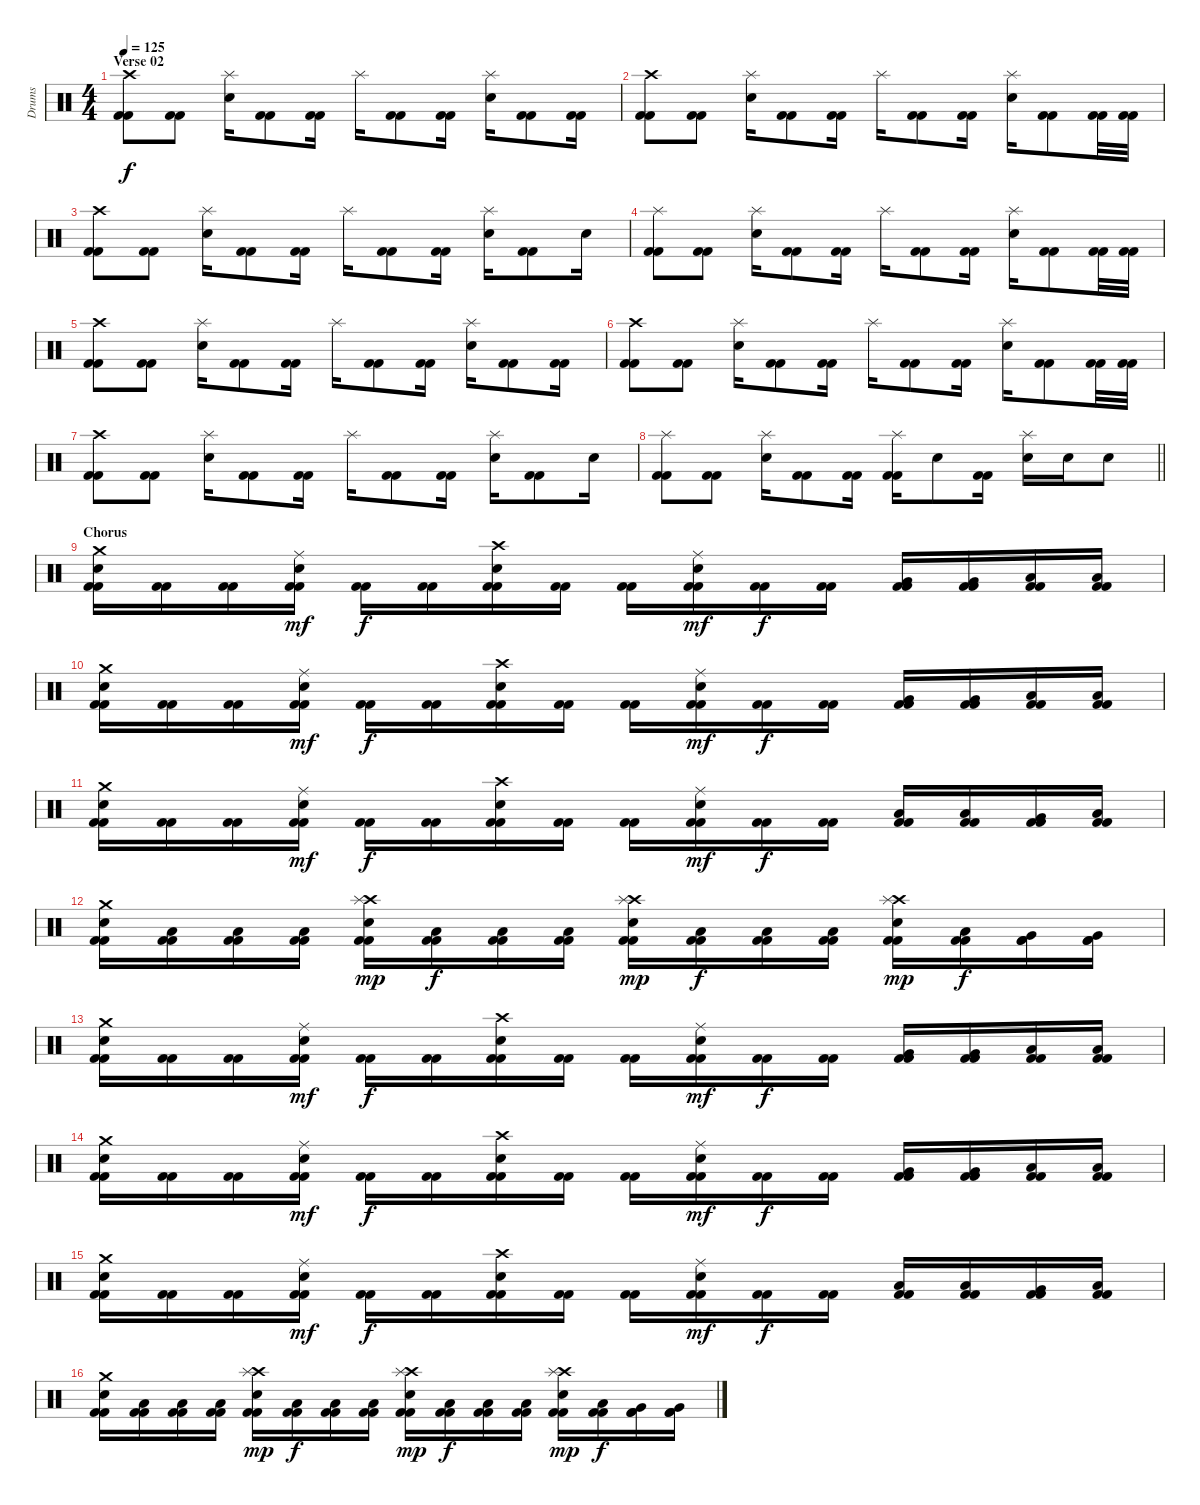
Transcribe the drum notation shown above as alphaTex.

\track ("Drums" "Drums") {instrument percussion}
\staff {score}
\articulation defaults
\ts (4 4)
\section ("" "Verse 02")
\tempo 125
\clef neutral
\ks c
("Crash high (hit)" "Kick (hit) 2" "Kick (hit) 2").8{dy f} ("Kick (hit) 2" "Kick (hit) 2").8 ("Splash (hit)" "Electric Snare (hit)").16 ("Kick (hit) 2" "Kick (hit) 2").8 ("Kick (hit) 2" "Kick (hit) 2").16 "Splash (hit)".16 ("Kick (hit) 2" "Kick (hit) 2").8 ("Kick (hit) 2" "Kick (hit) 2").16 ("Splash (hit)" "Electric Snare (hit)").16 ("Kick (hit) 2" "Kick (hit) 2").8 ("Kick (hit) 2" "Kick (hit) 2").16 |
("Crash high (hit)" "Kick (hit) 2" "Kick (hit) 2").8 ("Kick (hit) 2" "Kick (hit) 2").8 ("Splash (hit)" "Electric Snare (hit)").16 ("Kick (hit) 2" "Kick (hit) 2").8 ("Kick (hit) 2" "Kick (hit) 2").16 "Splash (hit)".16 ("Kick (hit) 2" "Kick (hit) 2").8 ("Kick (hit) 2" "Kick (hit) 2").16 ("Splash (hit)" "Electric Snare (hit)").16 ("Kick (hit) 2" "Kick (hit) 2").8 ("Kick (hit) 2" "Kick (hit) 2").32 ("Kick (hit) 2" "Kick (hit) 2").32 |
("Crash high (hit)" "Kick (hit) 2" "Kick (hit) 2").8 ("Kick (hit) 2" "Kick (hit) 2").8 ("Splash (hit)" "Electric Snare (hit)").16 ("Kick (hit) 2" "Kick (hit) 2").8 ("Kick (hit) 2" "Kick (hit) 2").16 "Splash (hit)".16 ("Kick (hit) 2" "Kick (hit) 2").8 ("Kick (hit) 2" "Kick (hit) 2").16 ("Splash (hit)" "Electric Snare (hit)").16 ("Kick (hit) 2" "Kick (hit) 2").8 "Electric Snare (hit)".16 |
("Splash (hit)" "Kick (hit) 2" "Kick (hit) 2").8 ("Kick (hit) 2" "Kick (hit) 2").8 ("Splash (hit)" "Electric Snare (hit)").16 ("Kick (hit) 2" "Kick (hit) 2").8 ("Kick (hit) 2" "Kick (hit) 2").16 "Splash (hit)".16 ("Kick (hit) 2" "Kick (hit) 2").8 ("Kick (hit) 2" "Kick (hit) 2").16 ("Splash (hit)" "Electric Snare (hit)").16 ("Kick (hit) 2" "Kick (hit) 2").8 ("Kick (hit) 2" "Kick (hit) 2").32 ("Kick (hit) 2" "Kick (hit) 2").32 |
("Crash high (hit)" "Kick (hit) 2" "Kick (hit) 2").8 ("Kick (hit) 2" "Kick (hit) 2").8 ("Splash (hit)" "Electric Snare (hit)").16 ("Kick (hit) 2" "Kick (hit) 2").8 ("Kick (hit) 2" "Kick (hit) 2").16 "Splash (hit)".16 ("Kick (hit) 2" "Kick (hit) 2").8 ("Kick (hit) 2" "Kick (hit) 2").16 ("Splash (hit)" "Electric Snare (hit)").16 ("Kick (hit) 2" "Kick (hit) 2").8 ("Kick (hit) 2" "Kick (hit) 2").16 |
("Crash high (hit)" "Kick (hit) 2" "Kick (hit) 2").8 ("Kick (hit) 2" "Kick (hit) 2").8 ("Splash (hit)" "Electric Snare (hit)").16 ("Kick (hit) 2" "Kick (hit) 2").8 ("Kick (hit) 2" "Kick (hit) 2").16 "Splash (hit)".16 ("Kick (hit) 2" "Kick (hit) 2").8 ("Kick (hit) 2" "Kick (hit) 2").16 ("Splash (hit)" "Electric Snare (hit)").16 ("Kick (hit) 2" "Kick (hit) 2").8 ("Kick (hit) 2" "Kick (hit) 2").32 ("Kick (hit) 2" "Kick (hit) 2").32 |
("Crash high (hit)" "Kick (hit) 2" "Kick (hit) 2").8 ("Kick (hit) 2" "Kick (hit) 2").8 ("Splash (hit)" "Electric Snare (hit)").16 ("Kick (hit) 2" "Kick (hit) 2").8 ("Kick (hit) 2" "Kick (hit) 2").16 "Splash (hit)".16 ("Kick (hit) 2" "Kick (hit) 2").8 ("Kick (hit) 2" "Kick (hit) 2").16 ("Splash (hit)" "Electric Snare (hit)").16 ("Kick (hit) 2" "Kick (hit) 2").8 "Electric Snare (hit)".16 |
\barLineRight lightlight
("Splash (hit)" "Kick (hit) 2" "Kick (hit) 2").8 ("Kick (hit) 2" "Kick (hit) 2").8 ("Splash (hit)" "Electric Snare (hit)").16 ("Kick (hit) 2" "Kick (hit) 2").8 ("Kick (hit) 2" "Kick (hit) 2").16 ("Splash (hit)" "Kick (hit) 2" "Kick (hit) 2").16 "Electric Snare (hit)".8 ("Kick (hit) 2" "Kick (hit) 2").16 ("Splash (hit)" "Electric Snare (hit)").16 "Electric Snare (hit)".16 "Electric Snare (hit)".8 |
\section ("" "Chorus")
("Crash medium (hit)" "Electric Snare (hit)" "Kick (hit) 2" "Kick (hit) 2").16 ("Kick (hit) 2" "Kick (hit) 2").16 ("Kick (hit) 2" "Kick (hit) 2").16 ("Ride (middle)" "Electric Snare (hit)" "Kick (hit) 2" "Kick (hit) 2").16{dy mf} ("Kick (hit) 2" "Kick (hit) 2").16{dy f} ("Kick (hit) 2" "Kick (hit) 2").16 ("Crash high (hit)" "Electric Snare (hit)" "Kick (hit) 2" "Kick (hit) 2").16 ("Kick (hit) 2" "Kick (hit) 2").16 ("Kick (hit) 2" "Kick (hit) 2").16 ("Ride (middle)" "Electric Snare (hit)" "Kick (hit) 2" "Kick (hit) 2").16{dy mf} ("Kick (hit) 2" "Kick (hit) 2").16{dy f} ("Kick (hit) 2" "Kick (hit) 2").16 ("Very Low Tom (hit)" "Kick (hit) 2" "Kick (hit) 2").16 ("Very Low Tom (hit)" "Kick (hit) 2" "Kick (hit) 2").16 ("Low Floor Tom (hit)" "Kick (hit) 2" "Kick (hit) 2").16 ("Low Floor Tom (hit)" "Kick (hit) 2" "Kick (hit) 2").16 |
("Crash medium (hit)" "Electric Snare (hit)" "Kick (hit) 2" "Kick (hit) 2").16 ("Kick (hit) 2" "Kick (hit) 2").16 ("Kick (hit) 2" "Kick (hit) 2").16 ("Ride (middle)" "Electric Snare (hit)" "Kick (hit) 2" "Kick (hit) 2").16{dy mf} ("Kick (hit) 2" "Kick (hit) 2").16{dy f} ("Kick (hit) 2" "Kick (hit) 2").16 ("Crash high (hit)" "Electric Snare (hit)" "Kick (hit) 2" "Kick (hit) 2").16 ("Kick (hit) 2" "Kick (hit) 2").16 ("Kick (hit) 2" "Kick (hit) 2").16 ("Ride (middle)" "Electric Snare (hit)" "Kick (hit) 2" "Kick (hit) 2").16{dy mf} ("Kick (hit) 2" "Kick (hit) 2").16{dy f} ("Kick (hit) 2" "Kick (hit) 2").16 ("Very Low Tom (hit)" "Kick (hit) 2" "Kick (hit) 2").16 ("Very Low Tom (hit)" "Kick (hit) 2" "Kick (hit) 2").16 ("Low Floor Tom (hit)" "Kick (hit) 2" "Kick (hit) 2").16 ("Low Floor Tom (hit)" "Kick (hit) 2" "Kick (hit) 2").16 |
("Crash medium (hit)" "Electric Snare (hit)" "Kick (hit) 2" "Kick (hit) 2").16 ("Kick (hit) 2" "Kick (hit) 2").16 ("Kick (hit) 2" "Kick (hit) 2").16 ("Ride (middle)" "Electric Snare (hit)" "Kick (hit) 2" "Kick (hit) 2").16{dy mf} ("Kick (hit) 2" "Kick (hit) 2").16{dy f} ("Kick (hit) 2" "Kick (hit) 2").16 ("Crash high (hit)" "Electric Snare (hit)" "Kick (hit) 2" "Kick (hit) 2").16 ("Kick (hit) 2" "Kick (hit) 2").16 ("Kick (hit) 2" "Kick (hit) 2").16 ("Ride (middle)" "Electric Snare (hit)" "Kick (hit) 2" "Kick (hit) 2").16{dy mf} ("Kick (hit) 2" "Kick (hit) 2").16{dy f} ("Kick (hit) 2" "Kick (hit) 2").16 ("Low Tom (hit)" "Kick (hit) 2" "Kick (hit) 2").16 ("Low Tom (hit)" "Kick (hit) 2" "Kick (hit) 2").16 ("Very Low Tom (hit)" "Kick (hit) 2" "Kick (hit) 2").16 ("Low Floor Tom (hit)" "Kick (hit) 2" "Kick (hit) 2").16 |
("Crash medium (hit)" "Electric Snare (hit)" "Kick (hit) 2" "Kick (hit) 2").16 ("Low Floor Tom (hit)" "Kick (hit) 2" "Kick (hit) 2").16 ("Low Floor Tom (hit)" "Kick (hit) 2" "Kick (hit) 2").16 ("Low Floor Tom (hit)" "Kick (hit) 2" "Kick (hit) 2").16 ("Crash high (hit)" "Splash (hit)" "Electric Snare (hit)" "Kick (hit) 2" "Kick (hit) 2").16{dy mp} ("Low Floor Tom (hit)" "Kick (hit) 2" "Kick (hit) 2").16{dy f} ("Low Floor Tom (hit)" "Kick (hit) 2" "Kick (hit) 2").16 ("Low Floor Tom (hit)" "Kick (hit) 2" "Kick (hit) 2").16 ("Crash high (hit)" "Splash (hit)" "Electric Snare (hit)" "Kick (hit) 2" "Kick (hit) 2").16{dy mp} ("Low Floor Tom (hit)" "Kick (hit) 2" "Kick (hit) 2").16{dy f} ("Low Tom (hit)" "Kick (hit) 2" "Kick (hit) 2").16 ("Low Tom (hit)" "Kick (hit) 2" "Kick (hit) 2").16 ("Crash high (hit)" "Splash (hit)" "Electric Snare (hit)" "Kick (hit) 2" "Kick (hit) 2").16{dy mp} ("Low Floor Tom (hit)" "Kick (hit) 2" "Kick (hit) 2").16{dy f} ("Very Low Tom (hit)" "Kick (hit) 2" "Kick (hit) 2").16 ("Very Low Tom (hit)" "Kick (hit) 2" "Kick (hit) 2").16 |
("Crash medium (hit)" "Electric Snare (hit)" "Kick (hit) 2" "Kick (hit) 2").16 ("Kick (hit) 2" "Kick (hit) 2").16 ("Kick (hit) 2" "Kick (hit) 2").16 ("Ride (middle)" "Electric Snare (hit)" "Kick (hit) 2" "Kick (hit) 2").16{dy mf} ("Kick (hit) 2" "Kick (hit) 2").16{dy f} ("Kick (hit) 2" "Kick (hit) 2").16 ("Crash high (hit)" "Electric Snare (hit)" "Kick (hit) 2" "Kick (hit) 2").16 ("Kick (hit) 2" "Kick (hit) 2").16 ("Kick (hit) 2" "Kick (hit) 2").16 ("Ride (middle)" "Electric Snare (hit)" "Kick (hit) 2" "Kick (hit) 2").16{dy mf} ("Kick (hit) 2" "Kick (hit) 2").16{dy f} ("Kick (hit) 2" "Kick (hit) 2").16 ("Very Low Tom (hit)" "Kick (hit) 2" "Kick (hit) 2").16 ("Very Low Tom (hit)" "Kick (hit) 2" "Kick (hit) 2").16 ("Low Floor Tom (hit)" "Kick (hit) 2" "Kick (hit) 2").16 ("Low Floor Tom (hit)" "Kick (hit) 2" "Kick (hit) 2").16 |
("Crash medium (hit)" "Electric Snare (hit)" "Kick (hit) 2" "Kick (hit) 2").16 ("Kick (hit) 2" "Kick (hit) 2").16 ("Kick (hit) 2" "Kick (hit) 2").16 ("Ride (middle)" "Electric Snare (hit)" "Kick (hit) 2" "Kick (hit) 2").16{dy mf} ("Kick (hit) 2" "Kick (hit) 2").16{dy f} ("Kick (hit) 2" "Kick (hit) 2").16 ("Crash high (hit)" "Electric Snare (hit)" "Kick (hit) 2" "Kick (hit) 2").16 ("Kick (hit) 2" "Kick (hit) 2").16 ("Kick (hit) 2" "Kick (hit) 2").16 ("Ride (middle)" "Electric Snare (hit)" "Kick (hit) 2" "Kick (hit) 2").16{dy mf} ("Kick (hit) 2" "Kick (hit) 2").16{dy f} ("Kick (hit) 2" "Kick (hit) 2").16 ("Very Low Tom (hit)" "Kick (hit) 2" "Kick (hit) 2").16 ("Very Low Tom (hit)" "Kick (hit) 2" "Kick (hit) 2").16 ("Low Floor Tom (hit)" "Kick (hit) 2" "Kick (hit) 2").16 ("Low Floor Tom (hit)" "Kick (hit) 2" "Kick (hit) 2").16 |
("Crash medium (hit)" "Electric Snare (hit)" "Kick (hit) 2" "Kick (hit) 2").16 ("Kick (hit) 2" "Kick (hit) 2").16 ("Kick (hit) 2" "Kick (hit) 2").16 ("Ride (middle)" "Electric Snare (hit)" "Kick (hit) 2" "Kick (hit) 2").16{dy mf} ("Kick (hit) 2" "Kick (hit) 2").16{dy f} ("Kick (hit) 2" "Kick (hit) 2").16 ("Crash high (hit)" "Electric Snare (hit)" "Kick (hit) 2" "Kick (hit) 2").16 ("Kick (hit) 2" "Kick (hit) 2").16 ("Kick (hit) 2" "Kick (hit) 2").16 ("Ride (middle)" "Electric Snare (hit)" "Kick (hit) 2" "Kick (hit) 2").16{dy mf} ("Kick (hit) 2" "Kick (hit) 2").16{dy f} ("Kick (hit) 2" "Kick (hit) 2").16 ("Low Tom (hit)" "Kick (hit) 2" "Kick (hit) 2").16 ("Low Tom (hit)" "Kick (hit) 2" "Kick (hit) 2").16 ("Very Low Tom (hit)" "Kick (hit) 2" "Kick (hit) 2").16 ("Low Floor Tom (hit)" "Kick (hit) 2" "Kick (hit) 2").16 |
("Crash medium (hit)" "Electric Snare (hit)" "Kick (hit) 2" "Kick (hit) 2").16 ("Low Floor Tom (hit)" "Kick (hit) 2" "Kick (hit) 2").16 ("Low Floor Tom (hit)" "Kick (hit) 2" "Kick (hit) 2").16 ("Low Floor Tom (hit)" "Kick (hit) 2" "Kick (hit) 2").16 ("Crash high (hit)" "Splash (hit)" "Electric Snare (hit)" "Kick (hit) 2" "Kick (hit) 2").16{dy mp} ("Low Floor Tom (hit)" "Kick (hit) 2" "Kick (hit) 2").16{dy f} ("Low Floor Tom (hit)" "Kick (hit) 2" "Kick (hit) 2").16 ("Low Floor Tom (hit)" "Kick (hit) 2" "Kick (hit) 2").16 ("Crash high (hit)" "Splash (hit)" "Electric Snare (hit)" "Kick (hit) 2" "Kick (hit) 2").16{dy mp} ("Low Floor Tom (hit)" "Kick (hit) 2" "Kick (hit) 2").16{dy f} ("Low Tom (hit)" "Kick (hit) 2" "Kick (hit) 2").16 ("Low Tom (hit)" "Kick (hit) 2" "Kick (hit) 2").16 ("Crash high (hit)" "Splash (hit)" "Electric Snare (hit)" "Kick (hit) 2" "Kick (hit) 2").16{dy mp} ("Low Floor Tom (hit)" "Kick (hit) 2" "Kick (hit) 2").16{dy f} ("Very Low Tom (hit)" "Kick (hit) 2" "Kick (hit) 2").16 ("Very Low Tom (hit)" "Kick (hit) 2" "Kick (hit) 2").16
